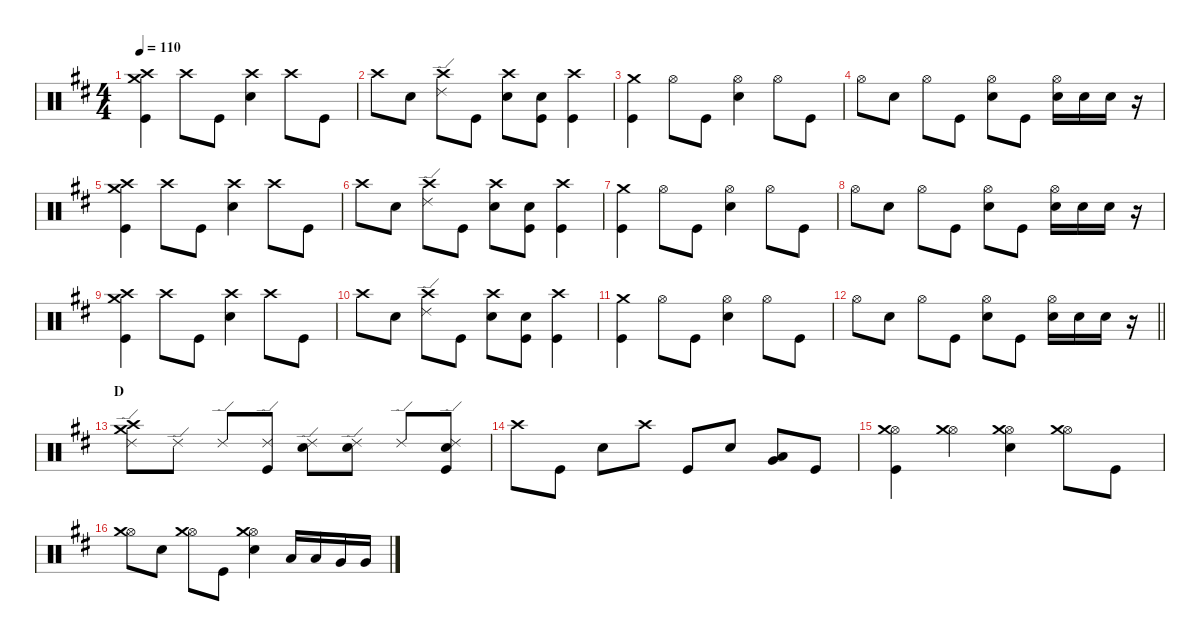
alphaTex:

\defaultSystemsLayout 4
\hideDynamics
\bracketExtendMode nobrackets
\singleTrackTrackNamePolicy hidden
\multiTrackTrackNamePolicy hidden
\firstSystemTrackNameMode fullname
\firstSystemTrackNameOrientation horizontal
\otherSystemsTrackNameOrientation horizontal
\track ("Aaron Harris" "drm.") {defaultSystemsLayout 4 instrument percussion}
\staff {score}
\articulation defaults
\ts (4 4)
\tempo 110
\clef neutral
\ks bminor
("Crash high (hit)"{acc forcenatural} "Crash medium (hit)"{acc forcenatural} "Kick (hit)"{acc forcenatural}).4{dy f beam Down} "Crash high (hit)"{acc forcenatural}.8{beam Down} "Kick (hit)"{acc forcenatural}.8{beam Down} ("Crash high (hit)"{acc forcenatural} "Snare (hit) 2"{acc forcenatural}).4{beam Down} "Crash high (hit)"{acc forcenatural}.8{beam Down} "Kick (hit)"{acc forcenatural}.8{beam Down} |
"Crash high (hit)"{acc forcenatural}.8{beam Down} "Snare (hit) 2"{acc forcenatural}.8{beam Down} ("Crash high (hit)"{acc forcenatural} "Ride (edge) 2"{acc forcenatural}).8{beam Down} "Kick (hit)"{acc forcenatural}.8{beam Down} ("Crash high (hit)"{acc forcenatural} "Snare (hit) 2"{acc forcenatural}).8{beam Down} ("Snare (hit) 2"{acc forcenatural} "Kick (hit)"{acc forcenatural}).8{beam Down} ("Crash high (hit)"{acc forcenatural} "Kick (hit)"{acc forcenatural}).4{beam Down} |
("Crash medium (hit)"{acc forcenatural} "Kick (hit)"{acc forcenatural}).4{beam Down} "Hi-Hat (open)"{acc forcenatural}.8{beam Down} "Kick (hit)"{acc forcenatural}.8{beam Down} ("Hi-Hat (open)"{acc forcenatural} "Snare (hit) 2"{acc forcenatural}).4{beam Down} "Hi-Hat (open)"{acc forcenatural}.8{beam Down} "Kick (hit)"{acc forcenatural}.8{beam Down} |
"Hi-Hat (open)"{acc forcenatural}.8{beam Down} "Snare (hit) 2"{acc forcenatural}.8{beam Down} "Hi-Hat (open)"{acc forcenatural}.8{beam Down} "Kick (hit)"{acc forcenatural}.8{beam Down} ("Hi-Hat (open)"{acc forcenatural} "Snare (hit) 2"{acc forcenatural}).8{beam Down} "Kick (hit)"{acc forcenatural}.8{beam Down} ("Hi-Hat (open)"{acc forcenatural} "Snare (hit) 2"{acc forcenatural}).16{beam Down} "Snare (hit) 2"{acc forcenatural}.16{beam Down} "Snare (hit) 2"{acc forcenatural}.16{beam Down} r.16{beam Down} |
("Crash high (hit)"{acc forcenatural} "Crash medium (hit)"{acc forcenatural} "Kick (hit)"{acc forcenatural}).4{beam Down} "Crash high (hit)"{acc forcenatural}.8{beam Down} "Kick (hit)"{acc forcenatural}.8{beam Down} ("Crash high (hit)"{acc forcenatural} "Snare (hit) 2"{acc forcenatural}).4{beam Down} "Crash high (hit)"{acc forcenatural}.8{beam Down} "Kick (hit)"{acc forcenatural}.8{beam Down} |
"Crash high (hit)"{acc forcenatural}.8{beam Down} "Snare (hit) 2"{acc forcenatural}.8{beam Down} ("Crash high (hit)"{acc forcenatural} "Ride (edge) 2"{acc forcenatural}).8{beam Down} "Kick (hit)"{acc forcenatural}.8{beam Down} ("Crash high (hit)"{acc forcenatural} "Snare (hit) 2"{acc forcenatural}).8{beam Down} ("Snare (hit) 2"{acc forcenatural} "Kick (hit)"{acc forcenatural}).8{beam Down} ("Crash high (hit)"{acc forcenatural} "Kick (hit)"{acc forcenatural}).4{beam Down} |
("Crash medium (hit)"{acc forcenatural} "Kick (hit)"{acc forcenatural}).4{beam Down} "Hi-Hat (open)"{acc forcenatural}.8{beam Down} "Kick (hit)"{acc forcenatural}.8{beam Down} ("Hi-Hat (open)"{acc forcenatural} "Snare (hit) 2"{acc forcenatural}).4{beam Down} "Hi-Hat (open)"{acc forcenatural}.8{beam Down} "Kick (hit)"{acc forcenatural}.8{beam Down} |
"Hi-Hat (open)"{acc forcenatural}.8{beam Down} "Snare (hit) 2"{acc forcenatural}.8{beam Down} "Hi-Hat (open)"{acc forcenatural}.8{beam Down} "Kick (hit)"{acc forcenatural}.8{beam Down} ("Hi-Hat (open)"{acc forcenatural} "Snare (hit) 2"{acc forcenatural}).8{beam Down} "Kick (hit)"{acc forcenatural}.8{beam Down} ("Hi-Hat (open)"{acc forcenatural} "Snare (hit) 2"{acc forcenatural}).16{beam Down} "Snare (hit) 2"{acc forcenatural}.16{beam Down} "Snare (hit) 2"{acc forcenatural}.16{beam Down} r.16{beam Down} |
("Crash high (hit)"{acc forcenatural} "Crash medium (hit)"{acc forcenatural} "Kick (hit)"{acc forcenatural}).4{beam Down} "Crash high (hit)"{acc forcenatural}.8{beam Down} "Kick (hit)"{acc forcenatural}.8{beam Down} ("Crash high (hit)"{acc forcenatural} "Snare (hit) 2"{acc forcenatural}).4{beam Down} "Crash high (hit)"{acc forcenatural}.8{beam Down} "Kick (hit)"{acc forcenatural}.8{beam Down} |
"Crash high (hit)"{acc forcenatural}.8{beam Down} "Snare (hit) 2"{acc forcenatural}.8{beam Down} ("Crash high (hit)"{acc forcenatural} "Ride (edge) 2"{acc forcenatural}).8{beam Down} "Kick (hit)"{acc forcenatural}.8{beam Down} ("Crash high (hit)"{acc forcenatural} "Snare (hit) 2"{acc forcenatural}).8{beam Down} ("Snare (hit) 2"{acc forcenatural} "Kick (hit)"{acc forcenatural}).8{beam Down} ("Crash high (hit)"{acc forcenatural} "Kick (hit)"{acc forcenatural}).4{beam Down} |
("Crash medium (hit)"{acc forcenatural} "Kick (hit)"{acc forcenatural}).4{beam Down} "Hi-Hat (open)"{acc forcenatural}.8{beam Down} "Kick (hit)"{acc forcenatural}.8{beam Down} ("Hi-Hat (open)"{acc forcenatural} "Snare (hit) 2"{acc forcenatural}).4{beam Down} "Hi-Hat (open)"{acc forcenatural}.8{beam Down} "Kick (hit)"{acc forcenatural}.8{beam Down} |
\barLineRight lightlight "Hi-Hat (open)"{acc forcenatural}.8{beam Down} "Snare (hit) 2"{acc forcenatural}.8{beam Down} "Hi-Hat (open)"{acc forcenatural}.8{beam Down} "Kick (hit)"{acc forcenatural}.8{beam Down}
("Hi-Hat (open)"{acc forcenatural} "Snare (hit) 2"{acc forcenatural}).8{beam Down} "Kick (hit)"{acc forcenatural}.8{beam Down} ("Hi-Hat (open)"{acc forcenatural} "Snare (hit) 2"{acc forcenatural}).16{beam Down} "Snare (hit) 2"{acc forcenatural}.16{beam Down} "Snare (hit) 2"{acc forcenatural}.16{beam Down} r.16{beam Down} |
\section ("" "D")
("Ride (edge) 2"{acc forcenatural} "Crash medium (hit)"{acc forcenatural} "Crash high (hit)"{acc forcenatural}).8{beam Down} "Ride (edge) 2"{acc forcenatural}.8{beam Down} "Ride (edge) 2"{acc forcenatural}.8{beam Up} ("Ride (edge) 2"{acc forcenatural} "Kick (hit)"{acc forcenatural}).8{beam Up} ("Ride (edge) 2"{acc forcenatural} "Snare (hit) 2"{acc forcenatural}).8{beam Down} ("Ride (edge) 2"{acc forcenatural} "Snare (hit) 2"{acc forcenatural}).8{beam Down} "Ride (edge) 2"{acc forcenatural}.8{beam Up} ("Ride (edge) 2"{acc forcenatural} "Snare (hit) 2"{acc forcenatural} "Kick (hit)"{acc forcenatural}).8{beam Up} |
"Crash high (hit)"{acc forcenatural}.8{beam Down} "Kick (hit)"{acc forcenatural}.8{beam Down} "Snare (hit) 2"{acc forcenatural}.8{beam Down} "Crash high (hit)"{acc forcenatural}.8{beam Down} "Kick (hit)"{acc forcenatural}.8{beam Up} "Snare (hit) 2"{acc forcenatural}.8{beam Up} ("Very Low Tom (hit)"{acc forcenatural} "Low Tom (hit)"{acc forcenatural}).8{beam Up} "Kick (hit)"{acc forcenatural}.8{beam Up} |
("Hi-Hat (open)"{acc forcenatural} "Crash medium (hit)"{acc forcenatural} "Kick (hit)"{acc forcenatural}).4{beam Down} ("Hi-Hat (open)"{acc forcenatural} "Crash medium (hit)"{acc forcenatural}).4{beam Down} ("Hi-Hat (open)"{acc forcenatural} "Crash medium (hit)"{acc forcenatural} "Snare (hit) 2"{acc forcenatural}).4{beam Down} ("Hi-Hat (open)"{acc forcenatural} "Crash medium (hit)"{acc forcenatural}).8{beam Down} "Kick (hit)"{acc forcenatural}.8{beam Down} |
("Hi-Hat (open)"{acc forcenatural} "Crash medium (hit)"{acc forcenatural}).8{beam Down} "Snare (hit) 2"{acc forcenatural}.8{beam Down} ("Hi-Hat (open)"{acc forcenatural} "Crash medium (hit)"{acc forcenatural}).8{beam Down} "Kick (hit)"{acc forcenatural}.8{beam Down} ("Hi-Hat (open)"{acc forcenatural} "Crash medium (hit)"{acc forcenatural} "Snare (hit) 2"{acc forcenatural}).4{beam Down} "Low Tom (hit)"{acc forcenatural}.16{beam Up} "Low Tom (hit)"{acc forcenatural}.16{beam Up} "Very Low Tom (hit)"{acc forcenatural}.16{beam Up} "Very Low Tom (hit)"{acc forcenatural}.16{beam Up}
